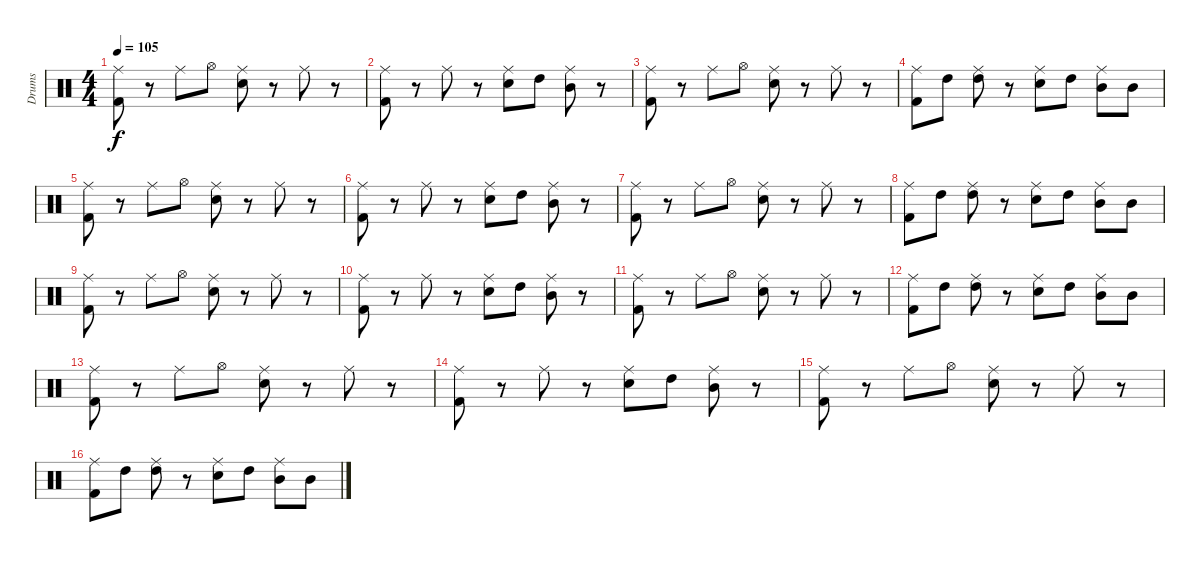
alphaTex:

\track ("Drums" "Drums") {instrument percussion}
\staff {score}
\articulation defaults
\ts (4 4)
\tempo 105
\clef neutral
\ks c
("Ride (middle)" "Kick (hit) 2").8{dy f} r.8 "Ride (middle)".8 "Hi-Hat (open)".8 ("Ride (middle)" "Snare (hit) 2").8 r.8 "Ride (middle)".8 r.8 |
("Ride (middle)" "Kick (hit) 2").8 r.8 "Ride (middle)".8 r.8 ("Ride (middle)" "Snare (hit) 2").8 "High Tom (hit)".8 ("Ride (middle)" "Mid Tom (hit)").8 r.8 |
("Ride (middle)" "Kick (hit) 2").8 r.8 "Ride (middle)".8 "Hi-Hat (open)".8 ("Ride (middle)" "Snare (hit) 2").8 r.8 "Ride (middle)".8 r.8 |
("Ride (middle)" "Kick (hit) 2").8 "High Tom (hit)".8 ("Ride (middle)" "High Tom (hit)").8 r.8 ("Ride (middle)" "Snare (hit) 2").8 "High Tom (hit)".8 ("Ride (middle)" "Mid Tom (hit)").8 "Mid Tom (hit)".8 |
("Ride (middle)" "Kick (hit) 2").8 r.8 "Ride (middle)".8 "Hi-Hat (open)".8 ("Ride (middle)" "Snare (hit) 2").8 r.8 "Ride (middle)".8 r.8 |
("Ride (middle)" "Kick (hit) 2").8 r.8 "Ride (middle)".8 r.8 ("Ride (middle)" "Snare (hit) 2").8 "High Tom (hit)".8 ("Ride (middle)" "Mid Tom (hit)").8 r.8 |
("Ride (middle)" "Kick (hit) 2").8 r.8 "Ride (middle)".8 "Hi-Hat (open)".8 ("Ride (middle)" "Snare (hit) 2").8 r.8 "Ride (middle)".8 r.8 |
("Ride (middle)" "Kick (hit) 2").8 "High Tom (hit)".8 ("Ride (middle)" "High Tom (hit)").8 r.8 ("Ride (middle)" "Snare (hit) 2").8 "High Tom (hit)".8 ("Ride (middle)" "Mid Tom (hit)").8 "Mid Tom (hit)".8 |
("Ride (middle)" "Kick (hit) 2").8 r.8 "Ride (middle)".8 "Hi-Hat (open)".8 ("Ride (middle)" "Snare (hit) 2").8 r.8 "Ride (middle)".8 r.8 |
("Ride (middle)" "Kick (hit) 2").8 r.8 "Ride (middle)".8 r.8 ("Ride (middle)" "Snare (hit) 2").8 "High Tom (hit)".8 ("Ride (middle)" "Mid Tom (hit)").8 r.8 |
("Ride (middle)" "Kick (hit) 2").8 r.8 "Ride (middle)".8 "Hi-Hat (open)".8 ("Ride (middle)" "Snare (hit) 2").8 r.8 "Ride (middle)".8 r.8 |
("Ride (middle)" "Kick (hit) 2").8 "High Tom (hit)".8 ("Ride (middle)" "High Tom (hit)").8 r.8 ("Ride (middle)" "Snare (hit) 2").8 "High Tom (hit)".8 ("Ride (middle)" "Mid Tom (hit)").8 "Mid Tom (hit)".8 |
("Ride (middle)" "Kick (hit) 2").8 r.8 "Ride (middle)".8 "Hi-Hat (open)".8 ("Ride (middle)" "Snare (hit) 2").8 r.8 "Ride (middle)".8 r.8 |
("Ride (middle)" "Kick (hit) 2").8 r.8 "Ride (middle)".8 r.8 ("Ride (middle)" "Snare (hit) 2").8 "High Tom (hit)".8 ("Ride (middle)" "Mid Tom (hit)").8 r.8 |
("Ride (middle)" "Kick (hit) 2").8 r.8 "Ride (middle)".8 "Hi-Hat (open)".8 ("Ride (middle)" "Snare (hit) 2").8 r.8 "Ride (middle)".8 r.8 |
("Ride (middle)" "Kick (hit) 2").8 "High Tom (hit)".8 ("Ride (middle)" "High Tom (hit)").8 r.8 ("Ride (middle)" "Snare (hit) 2").8 "High Tom (hit)".8 ("Ride (middle)" "Mid Tom (hit)").8 "Mid Tom (hit)".8
